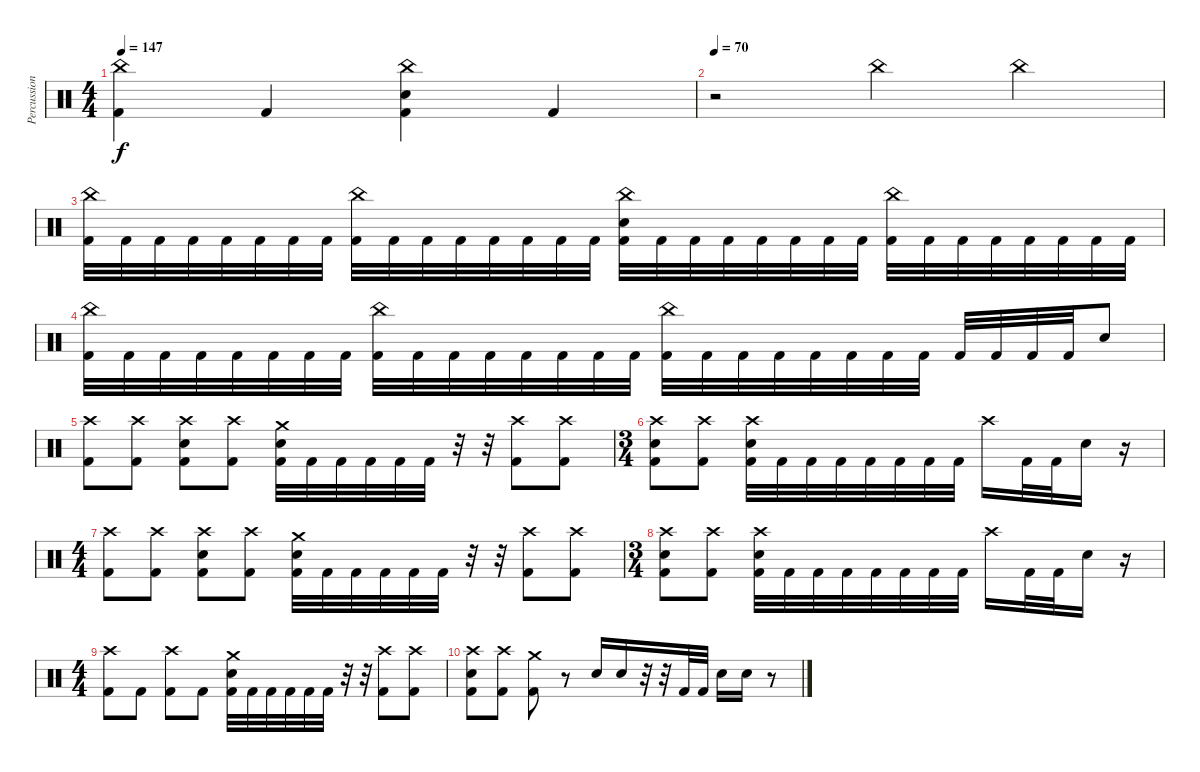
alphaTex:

\track ("Percussion" "Percussion") {instrument percussion}
\staff {score}
\articulation defaults
\ts (4 4)
\tempo 147
\clef neutral
\ks c
("China (hit)" "Kick (hit) 2").4{dy f} "Kick (hit) 2".4 ("China (hit)" "Electric Snare (hit)" "Kick (hit) 2").4 "Kick (hit) 2".4 |
\tempo 70
r.2 "China (hit)".4 "China (hit)".4 |
("China (hit)" "Kick (hit) 2").32 "Kick (hit) 2".32 "Kick (hit) 2".32 "Kick (hit) 2".32 "Kick (hit) 2".32 "Kick (hit) 2".32 "Kick (hit) 2".32 "Kick (hit) 2".32 ("China (hit)" "Kick (hit) 2").32 "Kick (hit) 2".32 "Kick (hit) 2".32 "Kick (hit) 2".32 "Kick (hit) 2".32 "Kick (hit) 2".32 "Kick (hit) 2".32 "Kick (hit) 2".32 ("China (hit)" "Electric Snare (hit)" "Kick (hit) 2").32 "Kick (hit) 2".32 "Kick (hit) 2".32 "Kick (hit) 2".32 "Kick (hit) 2".32 "Kick (hit) 2".32 "Kick (hit) 2".32 "Kick (hit) 2".32 ("China (hit)" "Kick (hit) 2").32 "Kick (hit) 2".32 "Kick (hit) 2".32 "Kick (hit) 2".32 "Kick (hit) 2".32 "Kick (hit) 2".32 "Kick (hit) 2".32 "Kick (hit) 2".32 |
("China (hit)" "Kick (hit) 2").32 "Kick (hit) 2".32 "Kick (hit) 2".32 "Kick (hit) 2".32 "Kick (hit) 2".32 "Kick (hit) 2".32 "Kick (hit) 2".32 "Kick (hit) 2".32 ("China (hit)" "Kick (hit) 2").32 "Kick (hit) 2".32 "Kick (hit) 2".32 "Kick (hit) 2".32 "Kick (hit) 2".32 "Kick (hit) 2".32 "Kick (hit) 2".32 "Kick (hit) 2".32 ("China (hit)" "Kick (hit) 2").32 "Kick (hit) 2".32 "Kick (hit) 2".32 "Kick (hit) 2".32 "Kick (hit) 2".32 "Kick (hit) 2".32 "Kick (hit) 2".32 "Kick (hit) 2".32 "Kick (hit) 2".32 "Kick (hit) 2".32 "Kick (hit) 2".32 "Kick (hit) 2".32 "Electric Snare (hit)".8 |
("Crash high (hit)" "Kick (hit) 2").8 ("Crash high (hit)" "Kick (hit) 2").8 ("Crash high (hit)" "Electric Snare (hit)" "Kick (hit) 2").8 ("Crash high (hit)" "Kick (hit) 2").8 ("Crash medium (hit)" "Electric Snare (hit)" "Kick (hit) 2").32 "Kick (hit) 2".32 "Kick (hit) 2".32 "Kick (hit) 2".32 "Kick (hit) 2".32 "Kick (hit) 2".32 r.32 r.32 ("Crash high (hit)" "Kick (hit) 2").8 ("Crash high (hit)" "Kick (hit) 2").8 |
\ts (3 4)
("Crash high (hit)" "Electric Snare (hit)" "Kick (hit) 2").8 ("Crash high (hit)" "Kick (hit) 2").8 ("Crash high (hit)" "Electric Snare (hit)" "Kick (hit) 2").32 "Kick (hit) 2".32 "Kick (hit) 2".32 "Kick (hit) 2".32 "Kick (hit) 2".32 "Kick (hit) 2".32 "Kick (hit) 2".32 "Kick (hit) 2".32 "Crash high (hit)".16 "Kick (hit) 2".32 "Kick (hit) 2".32 "Electric Snare (hit)".16 r.16 |
\ts (4 4)
("Crash high (hit)" "Kick (hit) 2").8 ("Crash high (hit)" "Kick (hit) 2").8 ("Crash high (hit)" "Electric Snare (hit)" "Kick (hit) 2").8 ("Crash high (hit)" "Kick (hit) 2").8 ("Crash medium (hit)" "Electric Snare (hit)" "Kick (hit) 2").32 "Kick (hit) 2".32 "Kick (hit) 2".32 "Kick (hit) 2".32 "Kick (hit) 2".32 "Kick (hit) 2".32 r.32 r.32 ("Crash high (hit)" "Kick (hit) 2").8 ("Crash high (hit)" "Kick (hit) 2").8 |
\ts (3 4)
("Crash high (hit)" "Electric Snare (hit)" "Kick (hit) 2").8 ("Crash high (hit)" "Kick (hit) 2").8 ("Crash high (hit)" "Electric Snare (hit)" "Kick (hit) 2").32 "Kick (hit) 2".32 "Kick (hit) 2".32 "Kick (hit) 2".32 "Kick (hit) 2".32 "Kick (hit) 2".32 "Kick (hit) 2".32 "Kick (hit) 2".32 "Crash high (hit)".16 "Kick (hit) 2".32 "Kick (hit) 2".32 "Electric Snare (hit)".16 r.16 |
\ts (4 4)
("Crash high (hit)" "Kick (hit) 2").8 "Kick (hit) 2".8 ("Crash high (hit)" "Kick (hit) 2").8 "Kick (hit) 2".8 ("Crash medium (hit)" "Electric Snare (hit)" "Kick (hit) 2").32 "Kick (hit) 2".32 "Kick (hit) 2".32 "Kick (hit) 2".32 "Kick (hit) 2".32 "Kick (hit) 2".32 r.32 r.32 ("Crash high (hit)" "Kick (hit) 2").8 ("Crash high (hit)" "Kick (hit) 2").8 |
("Crash high (hit)" "Electric Snare (hit)" "Kick (hit) 2").8 ("Crash high (hit)" "Kick (hit) 2").8 ("Crash medium (hit)" "Kick (hit) 2").8 r.8 "Electric Snare (hit)".16 "Electric Snare (hit)".16 r.32 r.32 "Kick (hit) 2".32 "Kick (hit) 2".32 "Electric Snare (hit)".16 "Electric Snare (hit)".16 r.8
